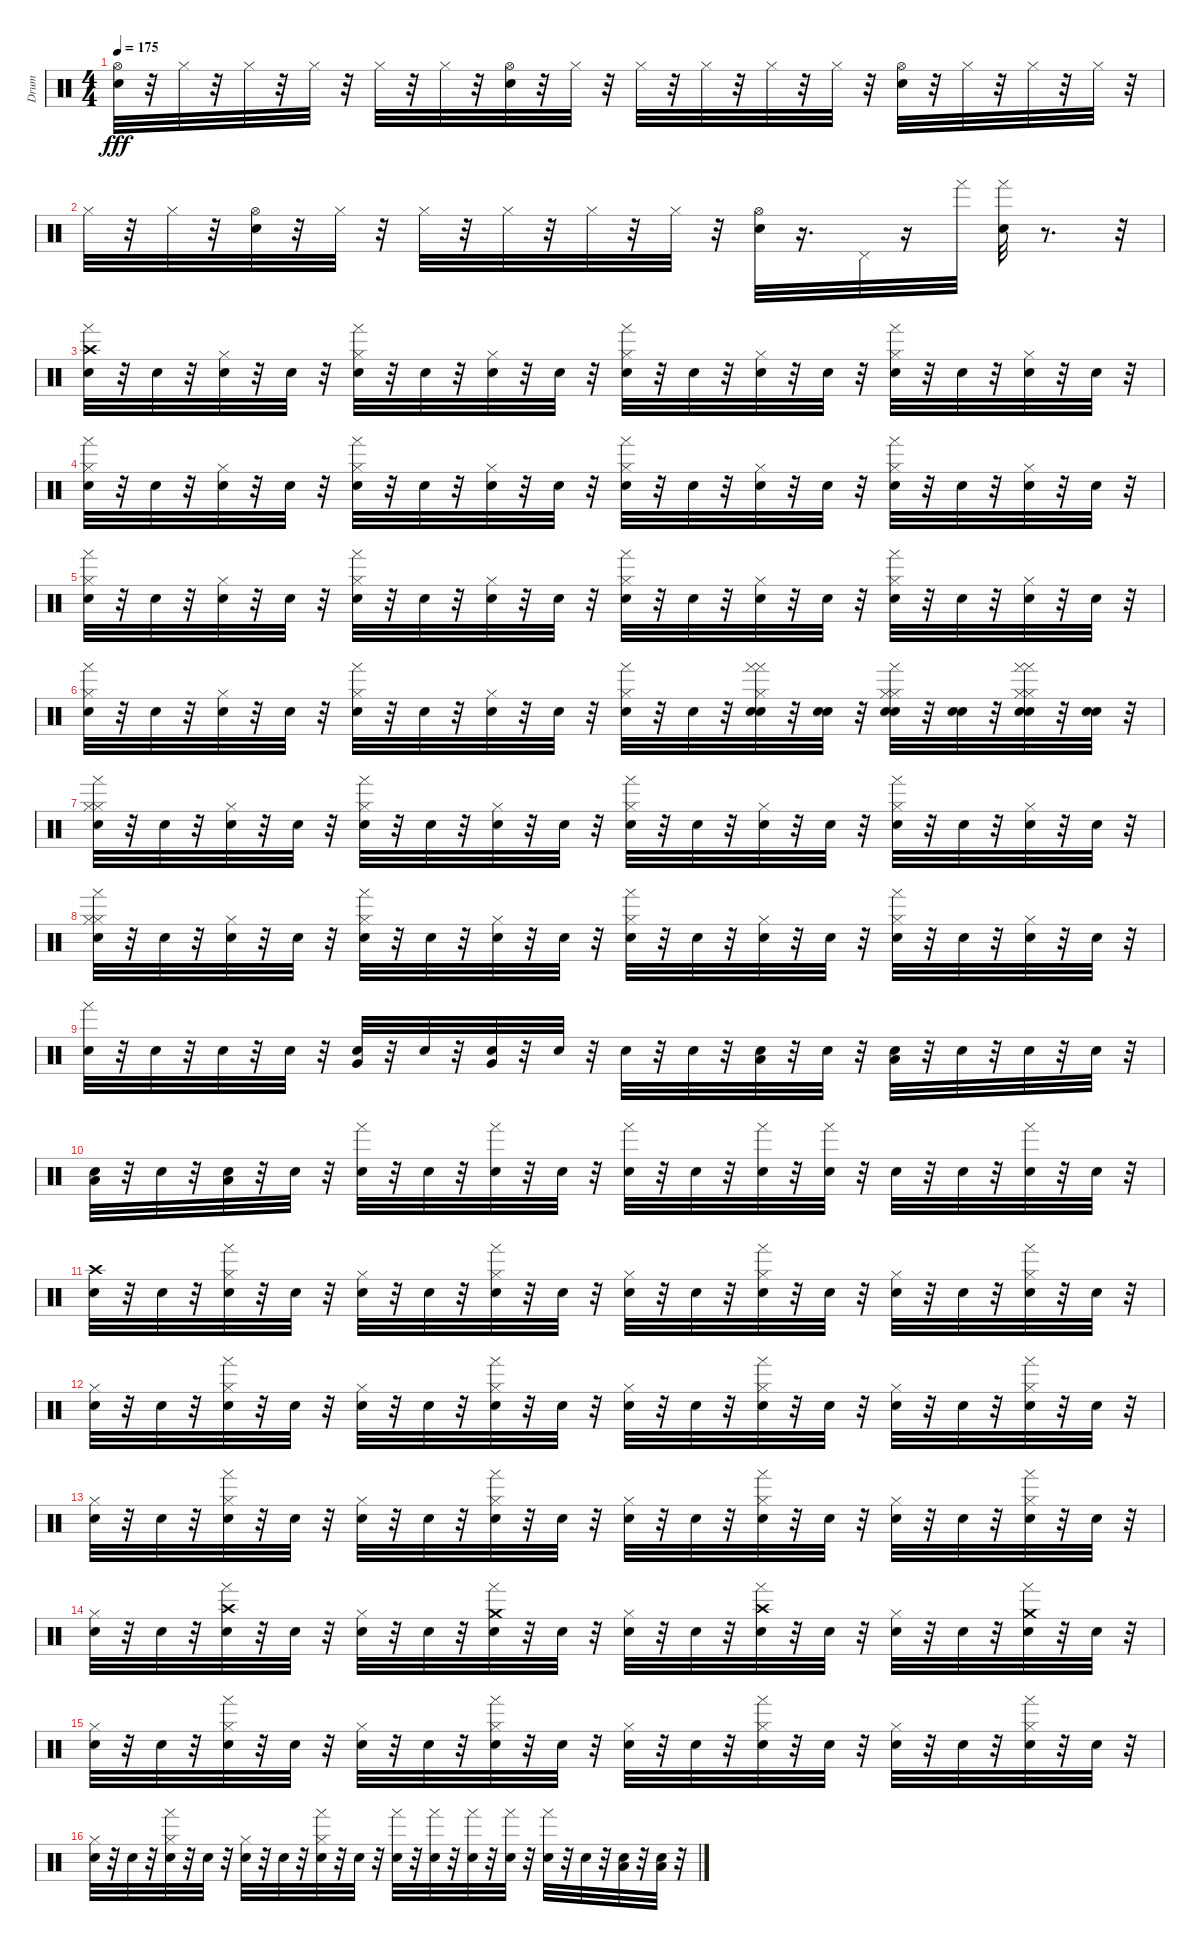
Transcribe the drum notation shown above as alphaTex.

\track ("Drum" "Drum") {instrument percussion}
\staff {score}
\articulation defaults
\ts (4 4)
\tempo 175
\clef neutral
\ks c
("Hi-Hat (open)" "Snare (hit)").32{dy fff} r.32 "Hi-Hat (closed)".32 r.32 "Hi-Hat (closed)".32 r.32 "Hi-Hat (closed)".32 r.32 "Hi-Hat (closed)".32 r.32 "Hi-Hat (closed)".32 r.32 ("Hi-Hat (open)" "Snare (hit)").32 r.32 "Hi-Hat (closed)".32 r.32 "Hi-Hat (closed)".32 r.32 "Hi-Hat (closed)".32 r.32 "Hi-Hat (closed)".32 r.32 "Hi-Hat (closed)".32 r.32 ("Hi-Hat (open)" "Snare (hit)").32 r.32 "Hi-Hat (closed)".32 r.32 "Hi-Hat (closed)".32 r.32 "Hi-Hat (closed)".32 r.32 |
"Hi-Hat (closed)".32 r.32 "Hi-Hat (closed)".32 r.32 ("Hi-Hat (open)" "Snare (hit)").32 r.32 "Hi-Hat (closed)".32 r.32 "Hi-Hat (closed)".32 r.32 "Hi-Hat (closed)".32 r.32 "Hi-Hat (closed)".32 r.32 "Hi-Hat (closed)".32 r.32 ("Hi-Hat (open)" "Snare (hit)").32 r.16{d} "Pedal Hi-Hat (hit)".32 r.16 "Tambourine (hand)".32 ("Tambourine (hand)" "Snare (hit)").32 r.8{d} r.32 |
("Crash high (hit)" "Tambourine (hand)" "Snare (hit)").32 r.32 "Snare (hit)".32 r.32 ("Hi-Hat (closed)" "Snare (hit)").32 r.32 "Snare (hit)".32 r.32 ("Hi-Hat (closed)" "Tambourine (hand)" "Snare (hit)").32 r.32 "Snare (hit)".32 r.32 ("Hi-Hat (closed)" "Snare (hit)").32 r.32 "Snare (hit)".32 r.32 ("Hi-Hat (closed)" "Tambourine (hand)" "Snare (hit)").32 r.32 "Snare (hit)".32 r.32 ("Hi-Hat (closed)" "Snare (hit)").32 r.32 "Snare (hit)".32 r.32 ("Hi-Hat (closed)" "Tambourine (hand)" "Snare (hit)").32 r.32 "Snare (hit)".32 r.32 ("Hi-Hat (closed)" "Snare (hit)").32 r.32 "Snare (hit)".32 r.32 |
("Hi-Hat (closed)" "Tambourine (hand)" "Snare (hit)").32 r.32 "Snare (hit)".32 r.32 ("Hi-Hat (closed)" "Snare (hit)").32 r.32 "Snare (hit)".32 r.32 ("Hi-Hat (closed)" "Tambourine (hand)" "Snare (hit)").32 r.32 "Snare (hit)".32 r.32 ("Hi-Hat (closed)" "Snare (hit)").32 r.32 "Snare (hit)".32 r.32 ("Hi-Hat (closed)" "Tambourine (hand)" "Snare (hit)").32 r.32 "Snare (hit)".32 r.32 ("Hi-Hat (closed)" "Snare (hit)").32 r.32 "Snare (hit)".32 r.32 ("Hi-Hat (closed)" "Tambourine (hand)" "Snare (hit)").32 r.32 "Snare (hit)".32 r.32 ("Hi-Hat (closed)" "Snare (hit)").32 r.32 "Snare (hit)".32 r.32 |
("Hi-Hat (closed)" "Tambourine (hand)" "Snare (hit)").32 r.32 "Snare (hit)".32 r.32 ("Hi-Hat (closed)" "Snare (hit)").32 r.32 "Snare (hit)".32 r.32 ("Hi-Hat (closed)" "Tambourine (hand)" "Snare (hit)").32 r.32 "Snare (hit)".32 r.32 ("Hi-Hat (closed)" "Snare (hit)").32 r.32 "Snare (hit)".32 r.32 ("Hi-Hat (closed)" "Tambourine (hand)" "Snare (hit)").32 r.32 "Snare (hit)".32 r.32 ("Hi-Hat (closed)" "Snare (hit)").32 r.32 "Snare (hit)".32 r.32 ("Hi-Hat (closed)" "Tambourine (hand)" "Snare (hit)").32 r.32 "Snare (hit)".32 r.32 ("Hi-Hat (closed)" "Snare (hit)").32 r.32 "Snare (hit)".32 r.32 |
("Hi-Hat (closed)" "Tambourine (hand)" "Snare (hit)").32 r.32 "Snare (hit)".32 r.32 ("Hi-Hat (closed)" "Snare (hit)").32 r.32 "Snare (hit)".32 r.32 ("Hi-Hat (closed)" "Tambourine (hand)" "Snare (hit)").32 r.32 "Snare (hit)".32 r.32 ("Hi-Hat (closed)" "Snare (hit)").32 r.32 "Snare (hit)".32 r.32 ("Hi-Hat (closed)" "Tambourine (hand)" "Snare (hit)").32 r.32 "Snare (hit)".32 r.32 ("Hi-Hat (closed)" "Tambourine (hand)" "Tambourine (hand)" "Snare (hit)" "Snare (hit)").32 r.32 ("Snare (hit)" "Snare (hit)").32 r.32 ("Hi-Hat (closed)" "Hi-Hat (closed)" "Tambourine (hand)" "Snare (hit)" "Snare (hit)").32 r.32 ("Snare (hit)" "Snare (hit)").32 r.32 ("Hi-Hat (closed)" "Hi-Hat (closed)" "Tambourine (hand)" "Tambourine (hand)" "Snare (hit)" "Snare (hit)").32 r.32 ("Snare (hit)" "Snare (hit)").32 r.32 |
("Hi-Hat (closed)" "Hi-Hat (closed)" "Tambourine (hand)" "Snare (hit)").32 r.32 "Snare (hit)".32 r.32 ("Hi-Hat (closed)" "Snare (hit)").32 r.32 "Snare (hit)".32 r.32 ("Hi-Hat (closed)" "Tambourine (hand)" "Snare (hit)").32 r.32 "Snare (hit)".32 r.32 ("Hi-Hat (closed)" "Snare (hit)").32 r.32 "Snare (hit)".32 r.32 ("Hi-Hat (closed)" "Tambourine (hand)" "Snare (hit)").32 r.32 "Snare (hit)".32 r.32 ("Hi-Hat (closed)" "Snare (hit)").32 r.32 "Snare (hit)".32 r.32 ("Hi-Hat (closed)" "Tambourine (hand)" "Snare (hit)").32 r.32 "Snare (hit)".32 r.32 ("Hi-Hat (closed)" "Snare (hit)").32 r.32 "Snare (hit)".32 r.32 |
("Hi-Hat (closed)" "Hi-Hat (closed)" "Tambourine (hand)" "Snare (hit)").32 r.32 "Snare (hit)".32 r.32 ("Hi-Hat (closed)" "Snare (hit)").32 r.32 "Snare (hit)".32 r.32 ("Hi-Hat (closed)" "Tambourine (hand)" "Snare (hit)").32 r.32 "Snare (hit)".32 r.32 ("Hi-Hat (closed)" "Snare (hit)").32 r.32 "Snare (hit)".32 r.32 ("Hi-Hat (closed)" "Tambourine (hand)" "Snare (hit)").32 r.32 "Snare (hit)".32 r.32 ("Hi-Hat (closed)" "Snare (hit)").32 r.32 "Snare (hit)".32 r.32 ("Hi-Hat (closed)" "Tambourine (hand)" "Snare (hit)").32 r.32 "Snare (hit)".32 r.32 ("Hi-Hat (closed)" "Snare (hit)").32 r.32 "Snare (hit)".32 r.32 |
("Tambourine (hand)" "Snare (hit)").32 r.32 "Snare (hit)".32 r.32 "Snare (hit)".32 r.32 "Snare (hit)".32 r.32 ("Very Low Tom (hit)" "Snare (hit)").32 r.32 "Snare (hit)".32 r.32 ("Very Low Tom (hit)" "Snare (hit)").32 r.32 "Snare (hit)".32 r.32 "Snare (hit)".32 r.32 "Snare (hit)".32 r.32 ("Low Floor Tom (hit)" "Snare (hit)").32 r.32 "Snare (hit)".32 r.32 ("Low Floor Tom (hit)" "Snare (hit)").32 r.32 "Snare (hit)".32 r.32 "Snare (hit)".32 r.32 "Snare (hit)".32 r.32 |
("Low Floor Tom (hit)" "Snare (hit)").32 r.32 "Snare (hit)".32 r.32 ("Low Floor Tom (hit)" "Snare (hit)").32 r.32 "Snare (hit)".32 r.32 ("Tambourine (hand)" "Snare (hit)").32 r.32 "Snare (hit)".32 r.32 ("Tambourine (hand)" "Snare (hit)").32 r.32 "Snare (hit)".32 r.32 ("Tambourine (hand)" "Snare (hit)").32 r.32 "Snare (hit)".32 r.32 ("Tambourine (hand)" "Snare (hit)").32 r.32 ("Tambourine (hand)" "Snare (hit)").32 r.32 "Snare (hit)".32 r.32 "Snare (hit)".32 r.32 ("Tambourine (hand)" "Snare (hit)").32 r.32 "Snare (hit)".32 r.32 |
("Crash high (hit)" "Snare (hit)").32 r.32 "Snare (hit)".32 r.32 ("Hi-Hat (closed)" "Tambourine (hand)" "Snare (hit)").32 r.32 "Snare (hit)".32 r.32 ("Hi-Hat (closed)" "Snare (hit)").32 r.32 "Snare (hit)".32 r.32 ("Hi-Hat (closed)" "Tambourine (hand)" "Snare (hit)").32 r.32 "Snare (hit)".32 r.32 ("Hi-Hat (closed)" "Snare (hit)").32 r.32 "Snare (hit)".32 r.32 ("Hi-Hat (closed)" "Tambourine (hand)" "Snare (hit)").32 r.32 "Snare (hit)".32 r.32 ("Hi-Hat (closed)" "Snare (hit)").32 r.32 "Snare (hit)".32 r.32 ("Hi-Hat (closed)" "Tambourine (hand)" "Snare (hit)").32 r.32 "Snare (hit)".32 r.32 |
("Hi-Hat (closed)" "Snare (hit)").32 r.32 "Snare (hit)".32 r.32 ("Hi-Hat (closed)" "Tambourine (hand)" "Snare (hit)").32 r.32 "Snare (hit)".32 r.32 ("Hi-Hat (closed)" "Snare (hit)").32 r.32 "Snare (hit)".32 r.32 ("Hi-Hat (closed)" "Tambourine (hand)" "Snare (hit)").32 r.32 "Snare (hit)".32 r.32 ("Hi-Hat (closed)" "Snare (hit)").32 r.32 "Snare (hit)".32 r.32 ("Hi-Hat (closed)" "Tambourine (hand)" "Snare (hit)").32 r.32 "Snare (hit)".32 r.32 ("Hi-Hat (closed)" "Snare (hit)").32 r.32 "Snare (hit)".32 r.32 ("Hi-Hat (closed)" "Tambourine (hand)" "Snare (hit)").32 r.32 "Snare (hit)".32 r.32 |
("Hi-Hat (closed)" "Snare (hit)").32 r.32 "Snare (hit)".32 r.32 ("Hi-Hat (closed)" "Tambourine (hand)" "Snare (hit)").32 r.32 "Snare (hit)".32 r.32 ("Hi-Hat (closed)" "Snare (hit)").32 r.32 "Snare (hit)".32 r.32 ("Hi-Hat (closed)" "Tambourine (hand)" "Snare (hit)").32 r.32 "Snare (hit)".32 r.32 ("Hi-Hat (closed)" "Snare (hit)").32 r.32 "Snare (hit)".32 r.32 ("Hi-Hat (closed)" "Tambourine (hand)" "Snare (hit)").32 r.32 "Snare (hit)".32 r.32 ("Hi-Hat (closed)" "Snare (hit)").32 r.32 "Snare (hit)".32 r.32 ("Hi-Hat (closed)" "Tambourine (hand)" "Snare (hit)").32 r.32 "Snare (hit)".32 r.32 |
("Hi-Hat (closed)" "Snare (hit)").32 r.32 "Snare (hit)".32 r.32 ("Crash high (hit)" "Tambourine (hand)" "Snare (hit)").32 r.32 "Snare (hit)".32 r.32 ("Hi-Hat (closed)" "Snare (hit)").32 r.32 "Snare (hit)".32 r.32 ("Crash medium (hit)" "Tambourine (hand)" "Snare (hit)").32 r.32 "Snare (hit)".32 r.32 ("Hi-Hat (closed)" "Snare (hit)").32 r.32 "Snare (hit)".32 r.32 ("Crash high (hit)" "Tambourine (hand)" "Snare (hit)").32 r.32 "Snare (hit)".32 r.32 ("Hi-Hat (closed)" "Snare (hit)").32 r.32 "Snare (hit)".32 r.32 ("Crash medium (hit)" "Tambourine (hand)" "Snare (hit)").32 r.32 "Snare (hit)".32 r.32 |
("Hi-Hat (closed)" "Snare (hit)").32 r.32 "Snare (hit)".32 r.32 ("Hi-Hat (closed)" "Tambourine (hand)" "Snare (hit)").32 r.32 "Snare (hit)".32 r.32 ("Hi-Hat (closed)" "Snare (hit)").32 r.32 "Snare (hit)".32 r.32 ("Hi-Hat (closed)" "Tambourine (hand)" "Snare (hit)").32 r.32 "Snare (hit)".32 r.32 ("Hi-Hat (closed)" "Snare (hit)").32 r.32 "Snare (hit)".32 r.32 ("Hi-Hat (closed)" "Tambourine (hand)" "Snare (hit)").32 r.32 "Snare (hit)".32 r.32 ("Hi-Hat (closed)" "Snare (hit)").32 r.32 "Snare (hit)".32 r.32 ("Hi-Hat (closed)" "Tambourine (hand)" "Snare (hit)").32 r.32 "Snare (hit)".32 r.32 |
("Hi-Hat (closed)" "Snare (hit)").32 r.32 "Snare (hit)".32 r.32 ("Hi-Hat (closed)" "Tambourine (hand)" "Snare (hit)").32 r.32 "Snare (hit)".32 r.32 ("Hi-Hat (closed)" "Snare (hit)").32 r.32 "Snare (hit)".32 r.32 ("Hi-Hat (closed)" "Tambourine (hand)" "Snare (hit)").32 r.32 "Snare (hit)".32 r.32 ("Tambourine (hand)" "Snare (hit)").32 r.32 ("Tambourine (hand)" "Snare (hit)").32 r.32 ("Tambourine (hand)" "Snare (hit)").32 r.32 ("Tambourine (hand)" "Snare (hit)").32 r.32 ("Tambourine (hand)" "Snare (hit)").32 r.32 "Snare (hit)".32 r.32 ("Low Tom (hit)" "Snare (hit)").32 r.32 ("Low Tom (hit)" "Snare (hit)").32 r.32
